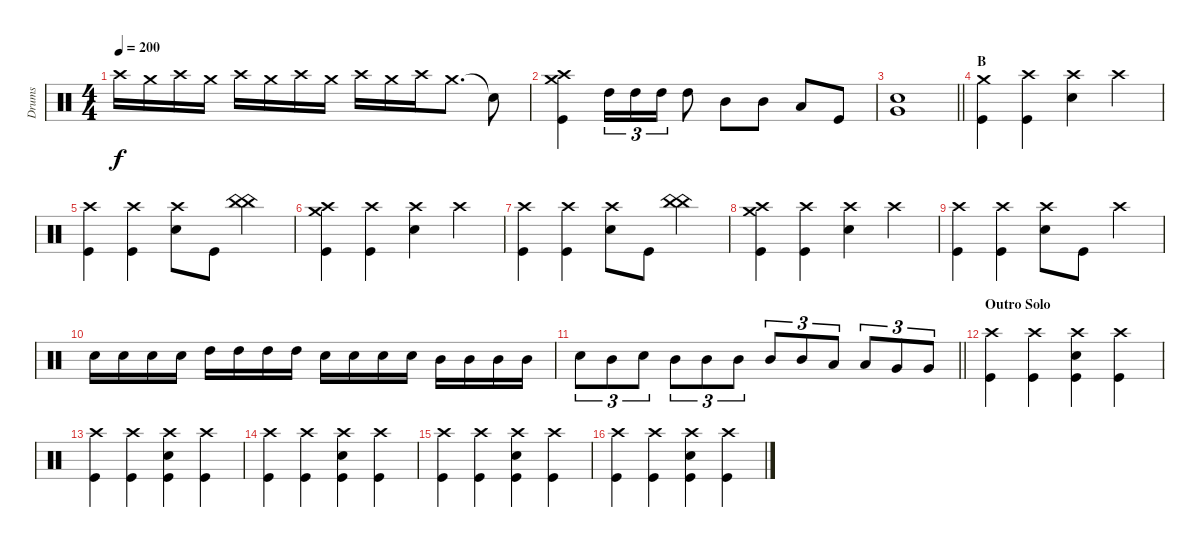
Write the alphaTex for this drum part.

\track ("Drums" "Drums") {instrument percussion}
\staff {score}
\articulation defaults
\ts (4 4)
\tempo 200
\clef neutral
\ks c "Crash high (hit)".16{dy f} "Crash medium (hit)".16 "Crash high (hit)".16 "Crash medium (hit)".16 "Crash high (hit)".16 "Crash medium (hit)".16 "Crash high (hit)".16 "Crash medium (hit)".16 "Crash high (hit)".16 "Crash medium (hit)".16 "Crash high (hit)".16 "Crash medium (hit)".8{d} "Snare (hit)"{t}.8
|
("Crash medium (hit)" "Crash high (hit)" "Kick (hit)").4 "High Tom (hit)".16{tu (3 2)} "High Tom (hit)".16{tu (3 2)} "High Tom (hit)".16{tu (3 2)} "High Tom (hit)".8 "Mid Tom (hit)".8 "Mid Tom (hit)".8 "Low Tom (hit)".8 "Kick (hit)".8 |
\barLineRight lightlight
("Very Low Tom (hit)" "Electric Snare (hit)").1 |
\section ("" "B")
("Crash medium (hit)" "Kick (hit)").4 ("Crash high (hit)" "Kick (hit)").4 ("Crash high (hit)" "Electric Snare (hit)").4 "Crash high (hit)".4 |
("Crash high (hit)" "Kick (hit)").4 ("Crash high (hit)" "Kick (hit)").4 ("Crash high (hit)" "Electric Snare (hit)").8 "Kick (hit)".8 ("China (hit)" "China (hit)").4 |
("Crash medium (hit)" "Crash high (hit)" "Kick (hit)").4 ("Crash high (hit)" "Kick (hit)").4 ("Crash high (hit)" "Electric Snare (hit)").4 "Crash high (hit)".4 |
("Crash high (hit)" "Kick (hit)").4 ("Crash high (hit)" "Kick (hit)").4 ("Crash high (hit)" "Electric Snare (hit)").8 "Kick (hit)".8 ("China (hit)" "China (hit)").4 |
("Crash medium (hit)" "Crash high (hit)" "Kick (hit)").4 ("Crash high (hit)" "Kick (hit)").4 ("Crash high (hit)" "Electric Snare (hit)").4 "Crash high (hit)".4 |
("Crash high (hit)" "Kick (hit)").4 ("Crash high (hit)" "Kick (hit)").4 ("Crash high (hit)" "Electric Snare (hit)").8 "Kick (hit)".8 "Crash high (hit)".4 |
"Electric Snare (hit)".16 "Electric Snare (hit)".16 "Electric Snare (hit)".16 "Electric Snare (hit)".16 "High Tom (hit)".16 "High Tom (hit)".16 "High Tom (hit)".16 "High Tom (hit)".16 "Electric Snare (hit)".16 "Electric Snare (hit)".16 "Electric Snare (hit)".16 "Electric Snare (hit)".16 "Mid Tom (hit)".16 "Mid Tom (hit)".16 "Mid Tom (hit)".16 "Mid Tom (hit)".16 |
\barLineRight lightlight "Electric Snare (hit)".8{tu (3 2)} "Mid Tom (hit)".8{tu (3 2)} "Electric Snare (hit)".8{tu (3 2)} "Mid Tom (hit)".8{tu (3 2)} "Mid Tom (hit)".8{tu (3 2)} "Mid Tom (hit)".8{tu (3 2)} "Mid Tom (hit)".8{tu (3 2)} "Mid Tom (hit)".8{tu (3 2)} "Low Tom (hit)".8{tu (3 2)} "Low Tom (hit)".8{tu (3 2)} "Very Low Tom (hit)".8{tu (3 2)} "Very Low Tom (hit)".8{tu (3 2)}
|
\section ("" "Outro Solo")
("Crash high (hit)" "Kick (hit)").4 ("Crash high (hit)" "Kick (hit)").4 ("Crash high (hit)" "Electric Snare (hit)" "Kick (hit)").4 ("Crash high (hit)" "Kick (hit)").4 |
("Crash high (hit)" "Kick (hit)").4 ("Crash high (hit)" "Kick (hit)").4 ("Crash high (hit)" "Electric Snare (hit)" "Kick (hit)").4 ("Crash high (hit)" "Kick (hit)").4 |
("Crash high (hit)" "Kick (hit)").4 ("Crash high (hit)" "Kick (hit)").4 ("Crash high (hit)" "Electric Snare (hit)" "Kick (hit)").4 ("Crash high (hit)" "Kick (hit)").4 |
("Crash high (hit)" "Kick (hit)").4 ("Crash high (hit)" "Kick (hit)").4 ("Crash high (hit)" "Electric Snare (hit)" "Kick (hit)").4 ("Crash high (hit)" "Kick (hit)").4 |
("Crash high (hit)" "Kick (hit)").4 ("Crash high (hit)" "Kick (hit)").4 ("Crash high (hit)" "Electric Snare (hit)" "Kick (hit)").4 ("Crash high (hit)" "Kick (hit)").4
